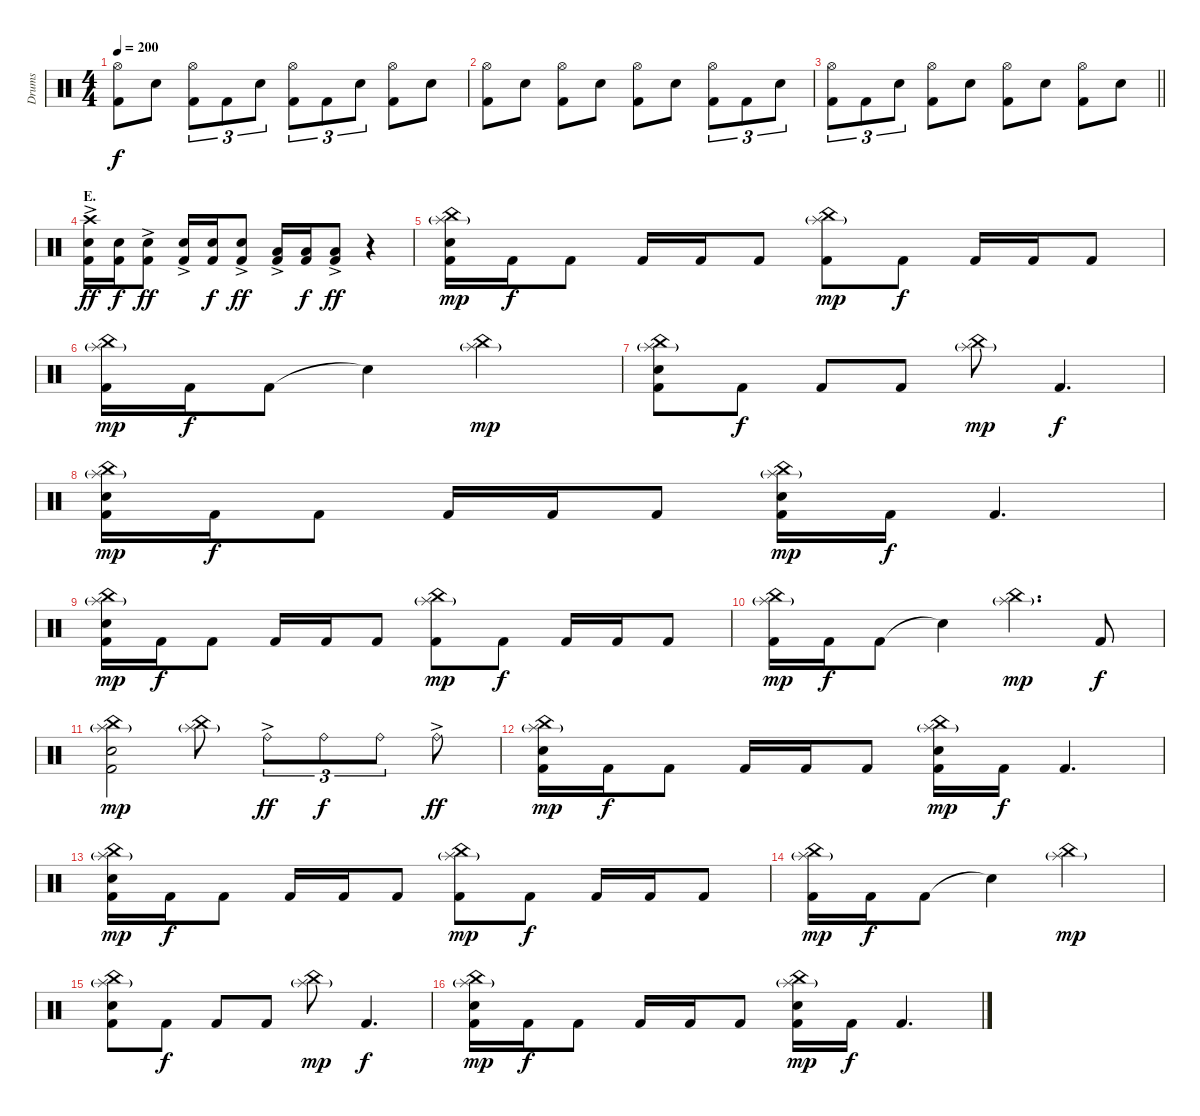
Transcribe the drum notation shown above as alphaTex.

\track ("Drums" "Drums") {instrument percussion}
\staff {score}
\articulation defaults
\ts (4 4)
\tempo 200
\clef neutral
\ks c
("Hi-Hat (open)" "Kick (hit) 2").8{dy f} "Electric Snare (hit)".8 ("Hi-Hat (open)" "Kick (hit) 2").8{tu (3 2)} "Kick (hit) 2".8{tu (3 2)} "Electric Snare (hit)".8{tu (3 2)} ("Hi-Hat (open)" "Kick (hit) 2").8{tu (3 2)} "Kick (hit) 2".8{tu (3 2)} "Electric Snare (hit)".8{tu (3 2)} ("Hi-Hat (open)" "Kick (hit) 2").8 "Electric Snare (hit)".8 |
("Hi-Hat (open)" "Kick (hit) 2").8 "Electric Snare (hit)".8 ("Hi-Hat (open)" "Kick (hit) 2").8 "Electric Snare (hit)".8 ("Hi-Hat (open)" "Kick (hit) 2").8 "Electric Snare (hit)".8 ("Hi-Hat (open)" "Kick (hit) 2").8{tu (3 2)} "Kick (hit) 2".8{tu (3 2)} "Electric Snare (hit)".8{tu (3 2)} |
\barLineRight lightlight
("Hi-Hat (open)" "Kick (hit) 2").8{tu (3 2)} "Kick (hit) 2".8{tu (3 2)} "Electric Snare (hit)".8{tu (3 2)} ("Hi-Hat (open)" "Kick (hit) 2").8 "Electric Snare (hit)".8 ("Hi-Hat (open)" "Kick (hit) 2").8 "Electric Snare (hit)".8 ("Hi-Hat (open)" "Kick (hit) 2").8 "Electric Snare (hit)".8 |
\section ("" "E.")
("Crash high (hit)" "Electric Snare (hit)"{ac} "Kick (hit) 2").16{dy ff} ("Electric Snare (hit)" "Kick (hit) 2").16{dy f} ("Electric Snare (hit)"{ac} "Kick (hit) 2").8{dy ff} ("Electric Snare (hit)"{ac} "Kick (hit) 2").16 ("Electric Snare (hit)" "Kick (hit) 2").16{dy f} ("Electric Snare (hit)"{ac} "Kick (hit) 2").8{dy ff} ("Low Tom (hit)"{ac} "Kick (hit) 2").16 ("Low Tom (hit)" "Kick (hit) 2").16{dy f} ("Low Tom (hit)"{ac} "Kick (hit) 2").8{dy ff} r.4 |
("China (hit)" "Splash (hit)"{g} "Electric Snare (hit)" "Kick (hit) 2").16{dy mp} "Kick (hit) 2".16{dy f} "Kick (hit) 2".8 "Kick (hit) 2".16 "Kick (hit) 2".16 "Kick (hit) 2".8 ("China (hit)" "Splash (hit)"{g} "Kick (hit) 2").8{dy mp} "Kick (hit) 2".8{dy f} "Kick (hit) 2".16 "Kick (hit) 2".16 "Kick (hit) 2".8 |
("China (hit)" "Splash (hit)"{g} "Kick (hit) 2").16{dy mp} "Kick (hit) 2".16{dy f} "Kick (hit) 2".8 "Snare (hit)"{t}.4 ("China (hit)" "Splash (hit)"{g}).2{dy mp} |
("China (hit)" "Splash (hit)"{g} "Electric Snare (hit)" "Kick (hit) 2").8 "Kick (hit) 2".8{dy f} "Kick (hit) 2".8 "Kick (hit) 2".8 ("China (hit)" "Splash (hit)"{g}).8{dy mp} "Kick (hit) 2".4{d dy f} |
("China (hit)" "Splash (hit)"{g} "Electric Snare (hit)" "Kick (hit) 2").16{dy mp} "Kick (hit) 2".16{dy f} "Kick (hit) 2".8 "Kick (hit) 2".16 "Kick (hit) 2".16 "Kick (hit) 2".8 ("China (hit)" "Splash (hit)"{g} "Electric Snare (hit)" "Kick (hit) 2").16{dy mp} "Kick (hit) 2".16{dy f} "Kick (hit) 2".4{d} |
("China (hit)" "Splash (hit)"{g} "Electric Snare (hit)" "Kick (hit) 2").16{dy mp} "Kick (hit) 2".16{dy f} "Kick (hit) 2".8 "Kick (hit) 2".16 "Kick (hit) 2".16 "Kick (hit) 2".8 ("China (hit)" "Splash (hit)"{g} "Kick (hit) 2").8{dy mp} "Kick (hit) 2".8{dy f} "Kick (hit) 2".16 "Kick (hit) 2".16 "Kick (hit) 2".8 |
("China (hit)" "Splash (hit)"{g} "Kick (hit) 2").16{dy mp} "Kick (hit) 2".16{dy f} "Kick (hit) 2".8 "Snare (hit)"{t}.4 ("China (hit)" "Splash (hit)"{g}).4{d dy mp} "Kick (hit) 2".8{dy f} |
("China (hit)" "Splash (hit)"{g} "Electric Snare (hit)" "Kick (hit) 2").2{dy mp} ("China (hit)" "Splash (hit)"{g}).8 "Ride (bell)"{ac}.8{tu (3 2) dy ff} "Ride (bell)".8{tu (3 2) dy f} "Ride (bell)".8{tu (3 2)} "Ride (bell)"{ac}.8{dy ff} |
("China (hit)" "Splash (hit)"{g} "Electric Snare (hit)" "Kick (hit) 2").16{dy mp} "Kick (hit) 2".16{dy f} "Kick (hit) 2".8 "Kick (hit) 2".16 "Kick (hit) 2".16 "Kick (hit) 2".8 ("China (hit)" "Splash (hit)"{g} "Electric Snare (hit)" "Kick (hit) 2").16{dy mp} "Kick (hit) 2".16{dy f} "Kick (hit) 2".4{d} |
("China (hit)" "Splash (hit)"{g} "Electric Snare (hit)" "Kick (hit) 2").16{dy mp} "Kick (hit) 2".16{dy f} "Kick (hit) 2".8 "Kick (hit) 2".16 "Kick (hit) 2".16 "Kick (hit) 2".8 ("China (hit)" "Splash (hit)"{g} "Kick (hit) 2").8{dy mp} "Kick (hit) 2".8{dy f} "Kick (hit) 2".16 "Kick (hit) 2".16 "Kick (hit) 2".8 |
("China (hit)" "Splash (hit)"{g} "Kick (hit) 2").16{dy mp} "Kick (hit) 2".16{dy f} "Kick (hit) 2".8 "Snare (hit)"{t}.4 ("China (hit)" "Splash (hit)"{g}).2{dy mp} |
("China (hit)" "Splash (hit)"{g} "Electric Snare (hit)" "Kick (hit) 2").8 "Kick (hit) 2".8{dy f} "Kick (hit) 2".8 "Kick (hit) 2".8 ("China (hit)" "Splash (hit)"{g}).8{dy mp} "Kick (hit) 2".4{d dy f} |
("China (hit)" "Splash (hit)"{g} "Electric Snare (hit)" "Kick (hit) 2").16{dy mp} "Kick (hit) 2".16{dy f} "Kick (hit) 2".8 "Kick (hit) 2".16 "Kick (hit) 2".16 "Kick (hit) 2".8 ("China (hit)" "Splash (hit)"{g} "Electric Snare (hit)" "Kick (hit) 2").16{dy mp} "Kick (hit) 2".16{dy f} "Kick (hit) 2".4{d}
